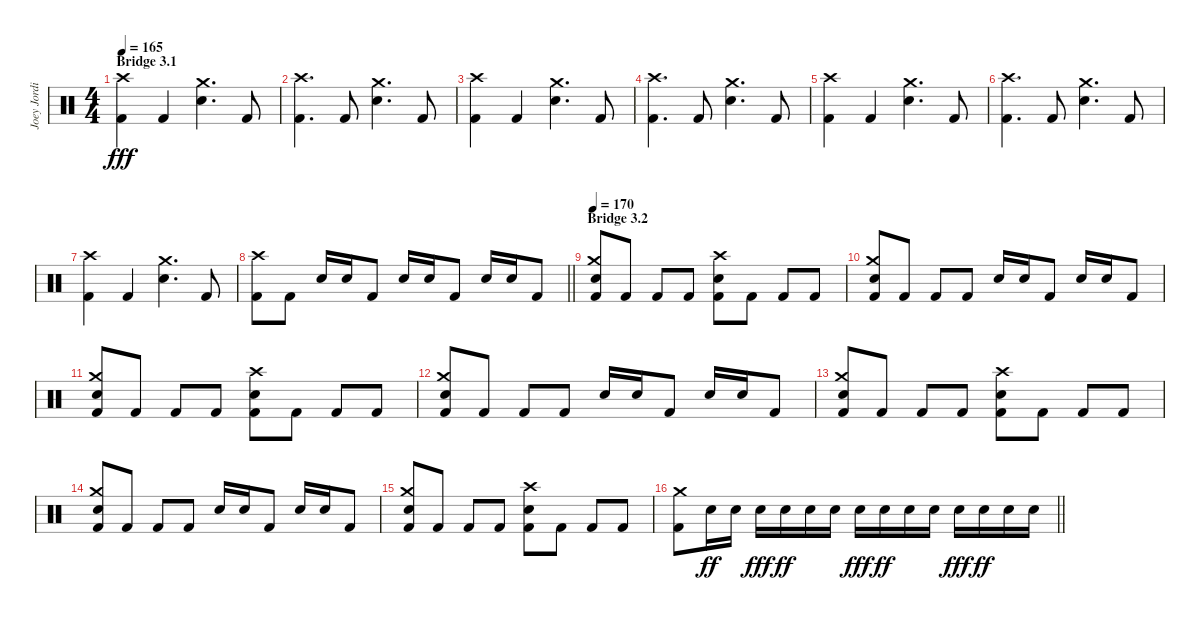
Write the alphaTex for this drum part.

\track ("Joey Jordison" "Joey Jordi") {instrument percussion}
\staff {score}
\articulation defaults
\ts (4 4)
\section ("" "Bridge 3.1")
\tempo 165
\clef neutral
\ks c
("Crash high (hit)" "Kick (hit) 2").4{dy fff} "Kick (hit) 2".4 ("Crash medium (hit)" "Electric Snare (hit)").4{d} "Kick (hit) 2".8 |
("Crash high (hit)" "Kick (hit) 2").4{d} "Kick (hit) 2".8 ("Crash medium (hit)" "Electric Snare (hit)").4{d} "Kick (hit) 2".8 |
("Crash high (hit)" "Kick (hit) 2").4 "Kick (hit) 2".4 ("Crash medium (hit)" "Electric Snare (hit)").4{d} "Kick (hit) 2".8 |
("Crash high (hit)" "Kick (hit) 2").4{d} "Kick (hit) 2".8 ("Crash medium (hit)" "Electric Snare (hit)").4{d} "Kick (hit) 2".8 |
("Crash high (hit)" "Kick (hit) 2").4 "Kick (hit) 2".4 ("Crash medium (hit)" "Electric Snare (hit)").4{d} "Kick (hit) 2".8 |
("Crash high (hit)" "Kick (hit) 2").4{d} "Kick (hit) 2".8 ("Crash medium (hit)" "Electric Snare (hit)").4{d} "Kick (hit) 2".8 |
("Crash high (hit)" "Kick (hit) 2").4 "Kick (hit) 2".4 ("Crash medium (hit)" "Electric Snare (hit)").4{d} "Kick (hit) 2".8 |
\barLineRight lightlight
("Crash high (hit)" "Kick (hit) 2").8 "Kick (hit) 2".8 "Electric Snare (hit)".16 "Electric Snare (hit)".16 "Kick (hit) 2".8 "Electric Snare (hit)".16 "Electric Snare (hit)".16 "Kick (hit) 2".8 "Electric Snare (hit)".16 "Electric Snare (hit)".16 "Kick (hit) 2".8 |
\section ("" "Bridge 3.2")
\tempo 170
("Crash medium (hit)" "Electric Snare (hit)" "Kick (hit) 2").8 "Kick (hit) 2".8 "Kick (hit) 2".8 "Kick (hit) 2".8 ("Crash high (hit)" "Electric Snare (hit)" "Kick (hit) 2").8 "Kick (hit) 2".8 "Kick (hit) 2".8 "Kick (hit) 2".8 |
("Crash medium (hit)" "Electric Snare (hit)" "Kick (hit) 2").8 "Kick (hit) 2".8 "Kick (hit) 2".8 "Kick (hit) 2".8 "Electric Snare (hit)".16 "Electric Snare (hit)".16 "Kick (hit) 2".8 "Electric Snare (hit)".16 "Electric Snare (hit)".16 "Kick (hit) 2".8 |
("Crash medium (hit)" "Electric Snare (hit)" "Kick (hit) 2").8 "Kick (hit) 2".8 "Kick (hit) 2".8 "Kick (hit) 2".8 ("Crash high (hit)" "Electric Snare (hit)" "Kick (hit) 2").8 "Kick (hit) 2".8 "Kick (hit) 2".8 "Kick (hit) 2".8 |
("Crash medium (hit)" "Electric Snare (hit)" "Kick (hit) 2").8 "Kick (hit) 2".8 "Kick (hit) 2".8 "Kick (hit) 2".8 "Electric Snare (hit)".16 "Electric Snare (hit)".16 "Kick (hit) 2".8 "Electric Snare (hit)".16 "Electric Snare (hit)".16 "Kick (hit) 2".8 |
("Crash medium (hit)" "Electric Snare (hit)" "Kick (hit) 2").8 "Kick (hit) 2".8 "Kick (hit) 2".8 "Kick (hit) 2".8 ("Crash high (hit)" "Electric Snare (hit)" "Kick (hit) 2").8 "Kick (hit) 2".8 "Kick (hit) 2".8 "Kick (hit) 2".8 |
("Crash medium (hit)" "Electric Snare (hit)" "Kick (hit) 2").8 "Kick (hit) 2".8 "Kick (hit) 2".8 "Kick (hit) 2".8 "Electric Snare (hit)".16 "Electric Snare (hit)".16 "Kick (hit) 2".8 "Electric Snare (hit)".16 "Electric Snare (hit)".16 "Kick (hit) 2".8 |
("Crash medium (hit)" "Electric Snare (hit)" "Kick (hit) 2").8 "Kick (hit) 2".8 "Kick (hit) 2".8 "Kick (hit) 2".8 ("Crash high (hit)" "Electric Snare (hit)" "Kick (hit) 2").8 "Kick (hit) 2".8 "Kick (hit) 2".8 "Kick (hit) 2".8 |
\barLineRight lightlight
("Crash medium (hit)" "Kick (hit) 2").8 "Electric Snare (hit)".16{dy ff} "Electric Snare (hit)".16 "Electric Snare (hit)".16{dy fff} "Electric Snare (hit)".16{dy ff} "Electric Snare (hit)".16 "Electric Snare (hit)".16 "Electric Snare (hit)".16{dy fff} "Electric Snare (hit)".16{dy ff} "Electric Snare (hit)".16 "Electric Snare (hit)".16 "Electric Snare (hit)".16{dy fff} "Electric Snare (hit)".16{dy ff} "Electric Snare (hit)".16 "Electric Snare (hit)".16
